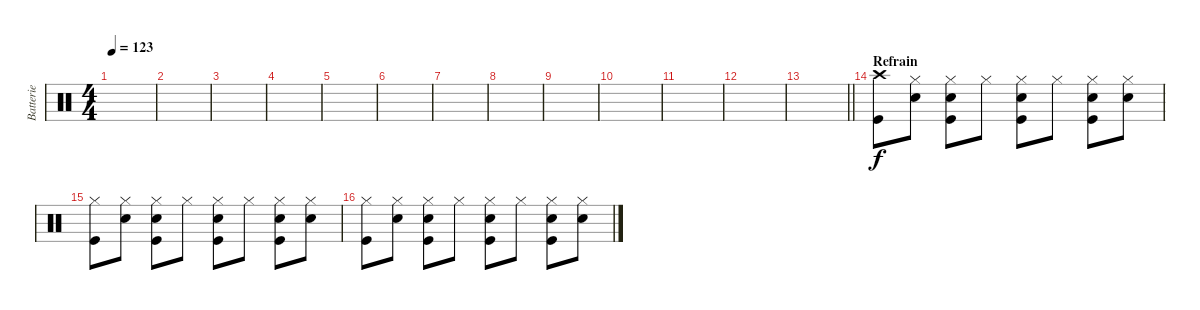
\track ("Batterie" "Batterie") {instrument percussion}
\staff {score}
\articulation defaults
\ts (4 4)
\tempo 123
\clef neutral
\ks c
|
|
|
|
|
|
|
|
|
|
|
|
\barLineRight lightlight
|
\section ("" "Refrain")
("Crash high (hit)" "Kick (hit)").8 ("Snare (hit) 2" "Hi-Hat (closed)").8 ("Hi-Hat (closed)" "Snare (hit) 2" "Kick (hit)").8 "Hi-Hat (closed)".8 ("Snare (hit) 2" "Kick (hit)" "Hi-Hat (closed)").8 "Hi-Hat (closed)".8 ("Hi-Hat (closed)" "Kick (hit)" "Snare (hit) 2").8 ("Hi-Hat (closed)" "Snare (hit) 2").8 |
("Hi-Hat (closed)" "Kick (hit)").8 ("Snare (hit) 2" "Hi-Hat (closed)").8 ("Hi-Hat (closed)" "Snare (hit) 2" "Kick (hit)").8 "Hi-Hat (closed)".8 ("Snare (hit) 2" "Kick (hit)" "Hi-Hat (closed)").8 "Hi-Hat (closed)".8 ("Hi-Hat (closed)" "Kick (hit)" "Snare (hit) 2").8 ("Hi-Hat (closed)" "Snare (hit) 2").8 |
("Hi-Hat (closed)" "Kick (hit)").8 ("Snare (hit) 2" "Hi-Hat (closed)").8 ("Hi-Hat (closed)" "Snare (hit) 2" "Kick (hit)").8 "Hi-Hat (closed)".8 ("Snare (hit) 2" "Kick (hit)" "Hi-Hat (closed)").8 "Hi-Hat (closed)".8 ("Hi-Hat (closed)" "Kick (hit)" "Snare (hit) 2").8 ("Hi-Hat (closed)" "Snare (hit) 2").8
